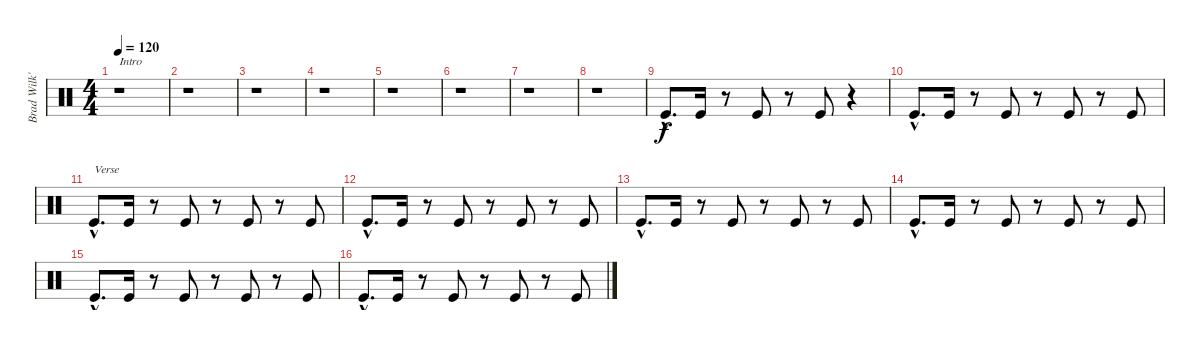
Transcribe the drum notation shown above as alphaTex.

\track ("Brad Wilk's Bass Drum" "Brad Wilk'") {instrument percussion}
\staff {score}
\articulation defaults
\ts (4 4)
\tempo 120
\clef neutral
\ks c
r.1{txt "Intro" dy f} |
r.1 |
r.1 |
r.1 |
r.1 |
r.1 |
r.1 |
r.1 |
"Kick (hit)"{hac}.8{d} "Kick (hit)".16 r.8 "Kick (hit)".8 r.8 "Kick (hit)".8 r.4 |
"Kick (hit)"{hac}.8{d} "Kick (hit)".16 r.8 "Kick (hit)".8 r.8 "Kick (hit)".8 r.8 "Kick (hit)".8 |
"Kick (hit)"{hac}.8{d txt "Verse"} "Kick (hit)".16 r.8 "Kick (hit)".8 r.8 "Kick (hit)".8 r.8 "Kick (hit)".8 |
"Kick (hit)"{hac}.8{d} "Kick (hit)".16 r.8 "Kick (hit)".8 r.8 "Kick (hit)".8 r.8 "Kick (hit)".8 |
"Kick (hit)"{hac}.8{d} "Kick (hit)".16 r.8 "Kick (hit)".8 r.8 "Kick (hit)".8 r.8 "Kick (hit)".8 |
"Kick (hit)"{hac}.8{d} "Kick (hit)".16 r.8 "Kick (hit)".8 r.8 "Kick (hit)".8 r.8 "Kick (hit)".8 |
"Kick (hit)"{hac}.8{d} "Kick (hit)".16 r.8 "Kick (hit)".8 r.8 "Kick (hit)".8 r.8 "Kick (hit)".8 |
"Kick (hit)"{hac}.8{d} "Kick (hit)".16 r.8 "Kick (hit)".8 r.8 "Kick (hit)".8 r.8 "Kick (hit)".8
